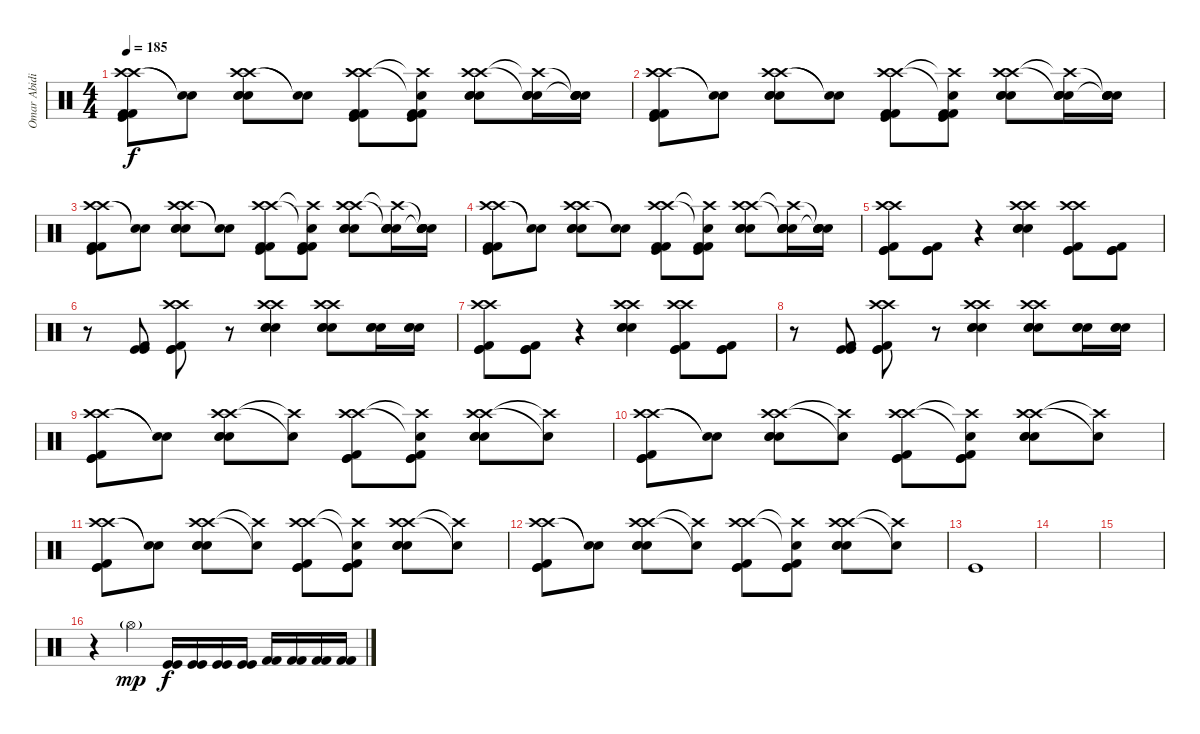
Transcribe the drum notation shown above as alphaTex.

\track ("Omar Abidi" "Omar Abidi") {instrument percussion}
\staff {score}
\articulation defaults
\ts (4 4)
\tempo 185
\clef neutral
\ks c
("Crash high (hit)" "Crash high (hit)" "Kick (hit) 2" "Kick (hit) 2" "Kick (hit)").8{dy f} ("Snare (hit)"{t} "Snare (hit)"{t}).8 ("Crash high (hit)" "Crash high (hit)" "Snare (hit) 2" "Electric Snare (hit)" "Snare (hit) 2").8 ("Snare (hit)"{t} "Snare (hit)"{t}).8 ("Crash high (hit)" "Crash high (hit)" "Kick (hit) 2" "Kick (hit) 2" "Kick (hit)").8 ("Snare (hit)"{t} "Crash high (hit)"{t} "Kick (hit) 2" "Kick (hit) 2" "Kick (hit)").8 ("Crash high (hit)" "Crash high (hit)" "Snare (hit) 2" "Electric Snare (hit)" "Snare (hit) 2").8 ("Crash high (hit)"{t} "Snare (hit)"{t} "Snare (hit) 2" "Snare (hit) 2" "Electric Snare (hit)").16 ("Snare (hit)"{t} "Snare (hit)"{t} "Snare (hit) 2" "Snare (hit) 2" "Electric Snare (hit)").16 |
("Crash high (hit)" "Crash high (hit)" "Kick (hit) 2" "Kick (hit) 2" "Kick (hit)").8 ("Snare (hit)"{t} "Snare (hit)"{t}).8 ("Crash high (hit)" "Crash high (hit)" "Snare (hit) 2" "Electric Snare (hit)" "Snare (hit) 2").8 ("Snare (hit)"{t} "Snare (hit)"{t}).8 ("Crash high (hit)" "Crash high (hit)" "Kick (hit) 2" "Kick (hit) 2" "Kick (hit)").8 ("Snare (hit)"{t} "Crash high (hit)"{t} "Kick (hit) 2" "Kick (hit) 2" "Kick (hit)").8 ("Crash high (hit)" "Crash high (hit)" "Snare (hit) 2" "Electric Snare (hit)" "Snare (hit) 2").8 ("Crash high (hit)"{t} "Snare (hit)"{t} "Snare (hit) 2" "Snare (hit) 2" "Electric Snare (hit)").16 ("Snare (hit)"{t} "Snare (hit)"{t} "Snare (hit) 2" "Snare (hit) 2" "Electric Snare (hit)").16 |
("Crash high (hit)" "Crash high (hit)" "Kick (hit) 2" "Kick (hit) 2" "Kick (hit)").8 ("Snare (hit)"{t} "Snare (hit)"{t}).8 ("Crash high (hit)" "Crash high (hit)" "Snare (hit) 2" "Electric Snare (hit)" "Snare (hit) 2").8 ("Snare (hit)"{t} "Snare (hit)"{t}).8 ("Crash high (hit)" "Crash high (hit)" "Kick (hit) 2" "Kick (hit) 2" "Kick (hit)").8 ("Snare (hit)"{t} "Crash high (hit)"{t} "Kick (hit) 2" "Kick (hit) 2" "Kick (hit)").8 ("Crash high (hit)" "Crash high (hit)" "Snare (hit) 2" "Electric Snare (hit)" "Snare (hit) 2").8 ("Crash high (hit)"{t} "Snare (hit)"{t} "Snare (hit) 2" "Snare (hit) 2" "Electric Snare (hit)").16 ("Snare (hit)"{t} "Snare (hit)"{t} "Snare (hit) 2" "Snare (hit) 2" "Electric Snare (hit)").16 |
("Crash high (hit)" "Crash high (hit)" "Kick (hit) 2" "Kick (hit) 2" "Kick (hit)").8 ("Snare (hit)"{t} "Snare (hit)"{t}).8 ("Crash high (hit)" "Crash high (hit)" "Snare (hit) 2" "Electric Snare (hit)" "Snare (hit) 2").8 ("Snare (hit)"{t} "Snare (hit)"{t}).8 ("Crash high (hit)" "Crash high (hit)" "Kick (hit) 2" "Kick (hit) 2" "Kick (hit)").8 ("Snare (hit)"{t} "Crash high (hit)"{t} "Kick (hit) 2" "Kick (hit) 2" "Kick (hit)").8 ("Crash high (hit)" "Crash high (hit)" "Snare (hit) 2" "Electric Snare (hit)" "Snare (hit) 2").8 ("Crash high (hit)"{t} "Snare (hit)"{t} "Snare (hit) 2" "Snare (hit) 2" "Electric Snare (hit)").16 ("Snare (hit)"{t} "Snare (hit)"{t} "Snare (hit) 2" "Snare (hit) 2" "Electric Snare (hit)").16 |
("Crash high (hit)" "Crash high (hit)" "Kick (hit) 2" "Kick (hit)" "Kick (hit)").8{volume 16} ("Kick (hit) 2" "Kick (hit)" "Kick (hit)").8 r.4 ("Crash high (hit)" "Crash high (hit)" "Snare (hit) 2" "Snare (hit) 2" "Electric Snare (hit)").4 ("Crash high (hit)" "Crash high (hit)" "Kick (hit) 2" "Kick (hit)" "Kick (hit)").8 ("Kick (hit) 2" "Kick (hit)" "Kick (hit)").8 |
r.8 ("Kick (hit) 2" "Kick (hit)" "Kick (hit)").8 ("Crash high (hit)" "Crash high (hit)" "Kick (hit) 2" "Kick (hit)" "Kick (hit)").8 r.8 ("Crash high (hit)" "Crash high (hit)" "Snare (hit) 2" "Snare (hit) 2" "Electric Snare (hit)").4 ("Crash high (hit)" "Crash high (hit)" "Snare (hit) 2" "Snare (hit) 2" "Electric Snare (hit)").8 ("Snare (hit) 2" "Electric Snare (hit)" "Snare (hit) 2").16 ("Snare (hit) 2" "Electric Snare (hit)" "Snare (hit) 2").16 |
("Crash high (hit)" "Crash high (hit)" "Kick (hit) 2" "Kick (hit)" "Kick (hit)").8{volume 16} ("Kick (hit) 2" "Kick (hit)" "Kick (hit)").8 r.4 ("Crash high (hit)" "Crash high (hit)" "Snare (hit) 2" "Snare (hit) 2" "Electric Snare (hit)").4 ("Crash high (hit)" "Crash high (hit)" "Kick (hit) 2" "Kick (hit)" "Kick (hit)").8 ("Kick (hit) 2" "Kick (hit)" "Kick (hit)").8 |
r.8 ("Kick (hit) 2" "Kick (hit)" "Kick (hit)").8 ("Crash high (hit)" "Crash high (hit)" "Kick (hit) 2" "Kick (hit)" "Kick (hit)").8 r.8 ("Crash high (hit)" "Crash high (hit)" "Snare (hit) 2" "Snare (hit) 2" "Electric Snare (hit)").4 ("Crash high (hit)" "Crash high (hit)" "Snare (hit) 2" "Snare (hit) 2" "Electric Snare (hit)").8 ("Snare (hit) 2" "Electric Snare (hit)" "Snare (hit) 2").16 ("Snare (hit) 2" "Electric Snare (hit)" "Snare (hit) 2").16 |
("Crash high (hit)" "Crash high (hit)" "Kick (hit) 2" "Kick (hit)" "Kick (hit)").8 ("Snare (hit)"{t} "Snare (hit)"{t}).8 ("Crash high (hit)" "Crash high (hit)" "Snare (hit) 2" "Electric Snare (hit)" "Snare (hit) 2").8 ("Snare (hit)"{t} "Crash high (hit)"{t}).8 ("Crash high (hit)" "Crash high (hit)" "Kick (hit) 2" "Kick (hit)" "Kick (hit)").8 ("Snare (hit)"{t} "Crash high (hit)"{t} "Kick (hit) 2" "Kick (hit)" "Kick (hit)").8 ("Crash high (hit)" "Crash high (hit)" "Snare (hit) 2" "Electric Snare (hit)" "Snare (hit) 2").8 ("Snare (hit)"{t} "Crash high (hit)"{t}).8 |
("Crash high (hit)" "Crash high (hit)" "Kick (hit) 2" "Kick (hit)" "Kick (hit)").8 ("Snare (hit)"{t} "Snare (hit)"{t}).8 ("Crash high (hit)" "Crash high (hit)" "Snare (hit) 2" "Electric Snare (hit)" "Snare (hit) 2").8 ("Snare (hit)"{t} "Crash high (hit)"{t}).8 ("Crash high (hit)" "Crash high (hit)" "Kick (hit) 2" "Kick (hit)" "Kick (hit)").8 ("Snare (hit)"{t} "Crash high (hit)"{t} "Kick (hit) 2" "Kick (hit)" "Kick (hit)").8 ("Crash high (hit)" "Crash high (hit)" "Snare (hit) 2" "Electric Snare (hit)" "Snare (hit) 2").8 ("Snare (hit)"{t} "Crash high (hit)"{t}).8 |
("Crash high (hit)" "Crash high (hit)" "Kick (hit) 2" "Kick (hit)" "Kick (hit)").8 ("Snare (hit)"{t} "Snare (hit)"{t}).8 ("Crash high (hit)" "Crash high (hit)" "Snare (hit) 2" "Electric Snare (hit)" "Snare (hit) 2").8 ("Snare (hit)"{t} "Crash high (hit)"{t}).8 ("Crash high (hit)" "Crash high (hit)" "Kick (hit) 2" "Kick (hit)" "Kick (hit)").8 ("Snare (hit)"{t} "Crash high (hit)"{t} "Kick (hit) 2" "Kick (hit)" "Kick (hit)").8 ("Crash high (hit)" "Crash high (hit)" "Snare (hit) 2" "Electric Snare (hit)" "Snare (hit) 2").8 ("Snare (hit)"{t} "Crash high (hit)"{t}).8 |
("Crash high (hit)" "Crash high (hit)" "Kick (hit) 2" "Kick (hit)" "Kick (hit)").8 ("Snare (hit)"{t} "Snare (hit)"{t}).8 ("Crash high (hit)" "Crash high (hit)" "Snare (hit) 2" "Electric Snare (hit)" "Snare (hit) 2").8 ("Snare (hit)"{t} "Crash high (hit)"{t}).8 ("Crash high (hit)" "Crash high (hit)" "Kick (hit) 2" "Kick (hit)" "Kick (hit)").8 ("Snare (hit)"{t} "Crash high (hit)"{t} "Kick (hit) 2" "Kick (hit)" "Kick (hit)").8 ("Crash high (hit)" "Crash high (hit)" "Snare (hit) 2" "Electric Snare (hit)" "Snare (hit) 2").8 ("Snare (hit)"{t} "Crash high (hit)"{t}).8 |
"Kick (hit)".1{volume 7} |
|
|
r.4 "Hi-Hat (open)"{g}.4{dy mp} ("Kick (hit)" "Kick (hit)").16{dy f} ("Kick (hit)" "Kick (hit)").16 ("Kick (hit)" "Kick (hit)").16 ("Kick (hit)" "Kick (hit)").16 ("Kick (hit) 2" "Kick (hit) 2").16 ("Kick (hit) 2" "Kick (hit) 2").16 ("Kick (hit) 2" "Kick (hit) 2").16 ("Kick (hit) 2" "Kick (hit) 2").16
